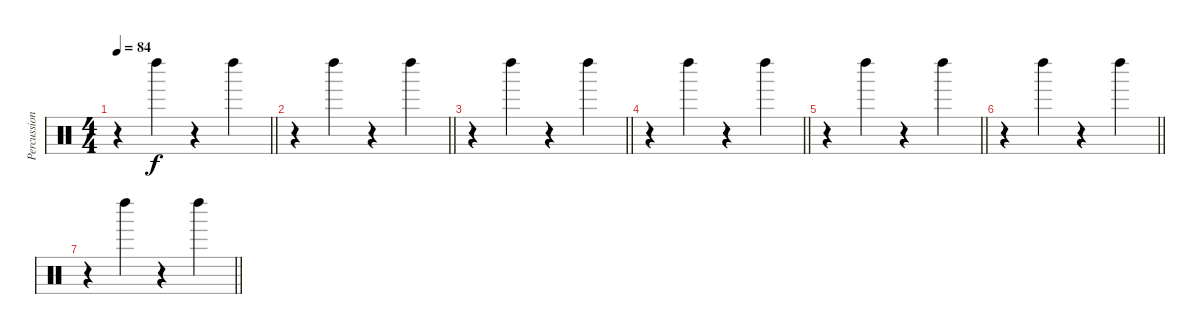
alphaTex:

\track ("Percussion" "Percussion") {instrument percussion}
\staff {score}
\articulation defaults
\ts (4 4)
\tempo 84
\clef neutral
\barLineRight lightlight
\ks c
r.4{dy f} "Left Maraca (hit)".4 r.4 "Left Maraca (hit)".4 |
\barLineRight lightlight
r.4 "Left Maraca (hit)".4 r.4 "Left Maraca (hit)".4 |
\barLineRight lightlight
r.4 "Left Maraca (hit)".4 r.4 "Left Maraca (hit)".4 |
\barLineRight lightlight
r.4 "Left Maraca (hit)".4 r.4 "Left Maraca (hit)".4 |
\barLineRight lightlight
r.4 "Left Maraca (hit)".4 r.4 "Left Maraca (hit)".4 |
\barLineRight lightlight
r.4 "Left Maraca (hit)".4 r.4 "Left Maraca (hit)".4 |
\barLineRight lightlight
r.4 "Left Maraca (hit)".4 r.4 "Left Maraca (hit)".4
